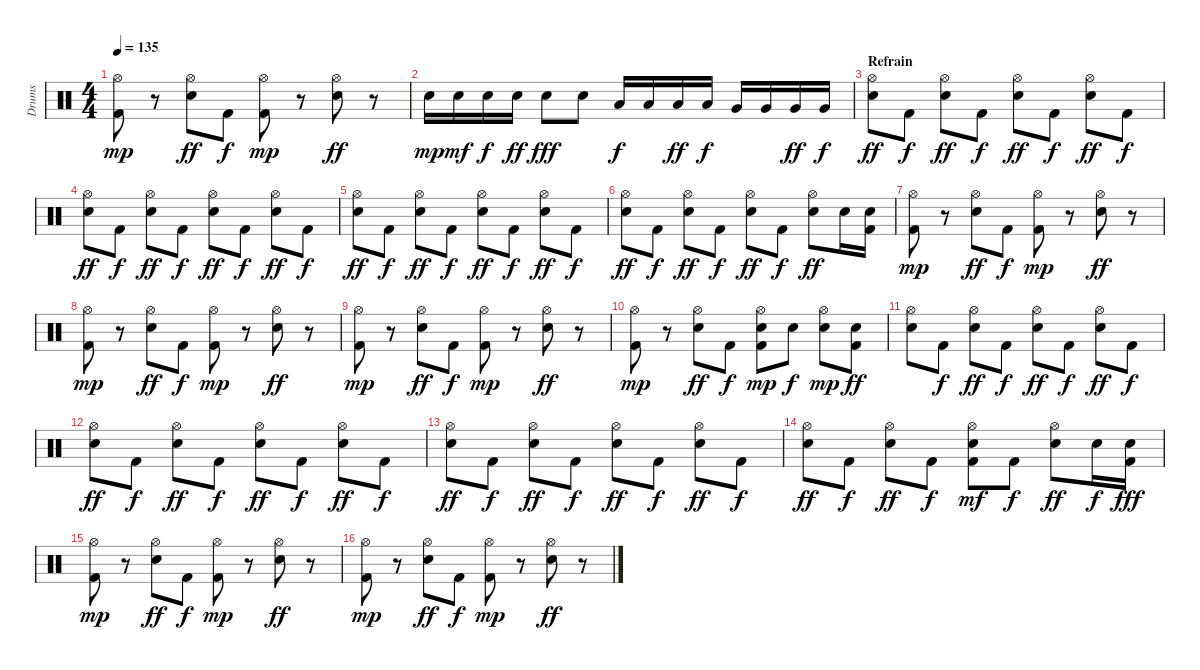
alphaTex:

\track ("Drums" "Drums") {instrument percussion}
\staff {score}
\articulation defaults
\ts (4 4)
\tempo 135
\clef neutral
\ks c
("Hi-Hat (open)" "Kick (hit) 2").8{dy mp} r.8 ("Hi-Hat (open)" "Electric Snare (hit)").8{dy ff} "Kick (hit) 2".8{dy f} ("Hi-Hat (open)" "Kick (hit) 2").8{dy mp} r.8 ("Hi-Hat (open)" "Electric Snare (hit)").8{dy ff} r.8 |
"Electric Snare (hit)".16{dy mp} "Electric Snare (hit)".16{dy mf} "Electric Snare (hit)".16{dy f} "Electric Snare (hit)".16{dy ff} "Electric Snare (hit)".8{dy fff} "Electric Snare (hit)".8 "Low Tom (hit)".16{dy f} "Low Tom (hit)".16 "Low Tom (hit)".16{dy ff} "Low Tom (hit)".16{dy f} "Very Low Tom (hit)".16 "Very Low Tom (hit)".16 "Very Low Tom (hit)".16{dy ff} "Very Low Tom (hit)".16{dy f} |
\section ("" "Refrain")
("Hi-Hat (open)" "Electric Snare (hit)").8{dy ff} "Kick (hit) 2".8{dy f} ("Hi-Hat (open)" "Electric Snare (hit)").8{dy ff} "Kick (hit) 2".8{dy f} ("Hi-Hat (open)" "Electric Snare (hit)").8{dy ff} "Kick (hit) 2".8{dy f} ("Hi-Hat (open)" "Electric Snare (hit)").8{dy ff} "Kick (hit) 2".8{dy f} |
("Hi-Hat (open)" "Electric Snare (hit)").8{dy ff} "Kick (hit) 2".8{dy f} ("Hi-Hat (open)" "Electric Snare (hit)").8{dy ff} "Kick (hit) 2".8{dy f} ("Hi-Hat (open)" "Electric Snare (hit)").8{dy ff} "Kick (hit) 2".8{dy f} ("Hi-Hat (open)" "Electric Snare (hit)").8{dy ff} "Kick (hit) 2".8{dy f} |
("Hi-Hat (open)" "Electric Snare (hit)").8{dy ff} "Kick (hit) 2".8{dy f} ("Hi-Hat (open)" "Electric Snare (hit)").8{dy ff} "Kick (hit) 2".8{dy f} ("Hi-Hat (open)" "Electric Snare (hit)").8{dy ff} "Kick (hit) 2".8{dy f} ("Hi-Hat (open)" "Electric Snare (hit)").8{dy ff} "Kick (hit) 2".8{dy f} |
("Hi-Hat (open)" "Electric Snare (hit)").8{dy ff} "Kick (hit) 2".8{dy f} ("Hi-Hat (open)" "Electric Snare (hit)").8{dy ff} "Kick (hit) 2".8{dy f} ("Hi-Hat (open)" "Electric Snare (hit)").8{dy ff} "Kick (hit) 2".8{dy f} ("Hi-Hat (open)" "Electric Snare (hit)").8{dy ff} "Electric Snare (hit)".16 ("Kick (hit) 2" "Electric Snare (hit)").16 |
("Hi-Hat (open)" "Kick (hit) 2").8{dy mp} r.8 ("Hi-Hat (open)" "Electric Snare (hit)").8{dy ff} "Kick (hit) 2".8{dy f} ("Hi-Hat (open)" "Kick (hit) 2").8{dy mp} r.8 ("Hi-Hat (open)" "Electric Snare (hit)").8{dy ff} r.8 |
("Hi-Hat (open)" "Kick (hit) 2").8{dy mp} r.8 ("Hi-Hat (open)" "Electric Snare (hit)").8{dy ff} "Kick (hit) 2".8{dy f} ("Hi-Hat (open)" "Kick (hit) 2").8{dy mp} r.8 ("Hi-Hat (open)" "Electric Snare (hit)").8{dy ff} r.8 |
("Hi-Hat (open)" "Kick (hit) 2").8{dy mp} r.8 ("Hi-Hat (open)" "Electric Snare (hit)").8{dy ff} "Kick (hit) 2".8{dy f} ("Hi-Hat (open)" "Kick (hit) 2").8{dy mp} r.8 ("Hi-Hat (open)" "Electric Snare (hit)").8{dy ff} r.8 |
("Hi-Hat (open)" "Kick (hit) 2").8{dy mp} r.8 ("Hi-Hat (open)" "Electric Snare (hit)").8{dy ff} "Kick (hit) 2".8{dy f} ("Hi-Hat (open)" "Kick (hit) 2" "Electric Snare (hit)").8{dy mp} "Electric Snare (hit)".8{dy f} ("Hi-Hat (open)" "Electric Snare (hit)").8{dy mp} ("Kick (hit) 2" "Electric Snare (hit)").8{dy ff} |
("Hi-Hat (open)" "Electric Snare (hit)").8 "Kick (hit) 2".8{dy f} ("Hi-Hat (open)" "Electric Snare (hit)").8{dy ff} "Kick (hit) 2".8{dy f} ("Hi-Hat (open)" "Electric Snare (hit)").8{dy ff} "Kick (hit) 2".8{dy f} ("Hi-Hat (open)" "Electric Snare (hit)").8{dy ff} "Kick (hit) 2".8{dy f} |
("Hi-Hat (open)" "Electric Snare (hit)").8{dy ff} "Kick (hit) 2".8{dy f} ("Hi-Hat (open)" "Electric Snare (hit)").8{dy ff} "Kick (hit) 2".8{dy f} ("Hi-Hat (open)" "Electric Snare (hit)").8{dy ff} "Kick (hit) 2".8{dy f} ("Hi-Hat (open)" "Electric Snare (hit)").8{dy ff} "Kick (hit) 2".8{dy f} |
("Hi-Hat (open)" "Electric Snare (hit)").8{dy ff} "Kick (hit) 2".8{dy f} ("Hi-Hat (open)" "Electric Snare (hit)").8{dy ff} "Kick (hit) 2".8{dy f} ("Hi-Hat (open)" "Electric Snare (hit)").8{dy ff} "Kick (hit) 2".8{dy f} ("Hi-Hat (open)" "Electric Snare (hit)").8{dy ff} "Kick (hit) 2".8{dy f} |
("Hi-Hat (open)" "Electric Snare (hit)").8{dy ff} "Kick (hit) 2".8{dy f} ("Hi-Hat (open)" "Electric Snare (hit)").8{dy ff} "Kick (hit) 2".8{dy f} ("Hi-Hat (open)" "Kick (hit) 2" "Electric Snare (hit)").8{dy mf} "Kick (hit) 2".8{dy f} ("Hi-Hat (open)" "Electric Snare (hit)").8{dy ff} "Electric Snare (hit)".16{dy f} ("Kick (hit) 2" "Electric Snare (hit)").16{dy fff} |
("Hi-Hat (open)" "Kick (hit) 2").8{dy mp} r.8 ("Hi-Hat (open)" "Electric Snare (hit)").8{dy ff} "Kick (hit) 2".8{dy f} ("Hi-Hat (open)" "Kick (hit) 2").8{dy mp} r.8 ("Hi-Hat (open)" "Electric Snare (hit)").8{dy ff} r.8 |
("Hi-Hat (open)" "Kick (hit) 2").8{dy mp} r.8 ("Hi-Hat (open)" "Electric Snare (hit)").8{dy ff} "Kick (hit) 2".8{dy f} ("Hi-Hat (open)" "Kick (hit) 2").8{dy mp} r.8 ("Hi-Hat (open)" "Electric Snare (hit)").8{dy ff} r.8
